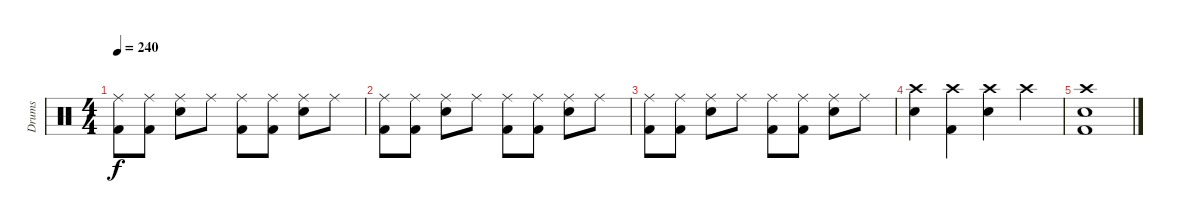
\track ("Drums" "Drums") {instrument percussion}
\staff {score}
\articulation defaults
\ts (4 4)
\tempo 240
\clef neutral
\ks c
("Ride (middle)" "Kick (hit) 2").8{dy f} ("Ride (middle)" "Kick (hit) 2").8 ("Ride (middle)" "Snare (hit) 2").8 "Ride (middle)".8 ("Ride (middle)" "Kick (hit) 2").8 ("Ride (middle)" "Kick (hit) 2").8 ("Ride (middle)" "Snare (hit) 2").8 "Ride (middle)".8 |
("Ride (middle)" "Kick (hit) 2").8 ("Ride (middle)" "Kick (hit) 2").8 ("Ride (middle)" "Snare (hit) 2").8 "Ride (middle)".8 ("Ride (middle)" "Kick (hit) 2").8 ("Ride (middle)" "Kick (hit) 2").8 ("Ride (middle)" "Snare (hit) 2").8 "Ride (middle)".8 |
("Ride (middle)" "Kick (hit) 2").8 ("Ride (middle)" "Kick (hit) 2").8 ("Ride (middle)" "Snare (hit) 2").8 "Ride (middle)".8 ("Ride (middle)" "Kick (hit) 2").8 ("Ride (middle)" "Kick (hit) 2").8 ("Ride (middle)" "Snare (hit) 2").8 "Ride (middle)".8 |
("Crash high (hit)" "Electric Snare (hit)").4 ("Crash high (hit)" "Kick (hit) 2").4 ("Crash high (hit)" "Electric Snare (hit)").4 "Crash high (hit)".4 |
("Crash high (hit)" "Electric Snare (hit)" "Kick (hit) 2").1
